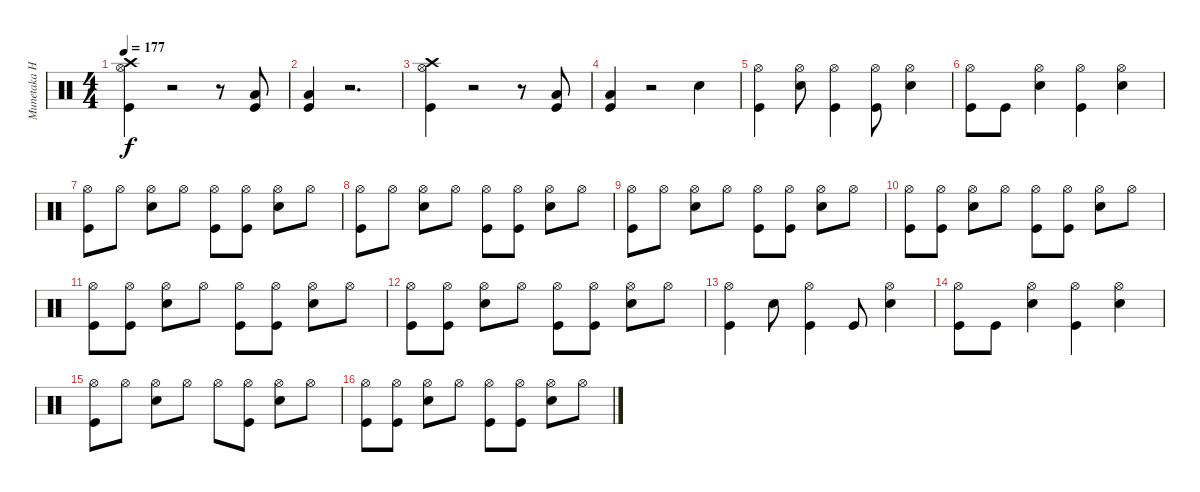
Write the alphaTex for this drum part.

\track ("Munetaka Higuchi" "Munetaka H") {instrument percussion}
\staff {score}
\articulation defaults
\ts (4 4)
\tempo 177
\clef neutral
\ks c
("Crash high (hit)" "Hi-Hat (open)" "Kick (hit)").4{dy f} r.2 r.8 ("Low Tom (hit)" "Kick (hit)").8 |
("Low Tom (hit)" "Kick (hit)").4 r.2{d} |
("Crash high (hit)" "Hi-Hat (open)" "Kick (hit)").4 r.2 r.8 ("Low Tom (hit)" "Kick (hit)").8 |
("Low Tom (hit)" "Kick (hit)").4 r.2 "Snare (hit) 2".4 |
("Hi-Hat (open)" "Kick (hit)").4 ("Hi-Hat (open)" "Snare (hit) 2").8 ("Hi-Hat (open)" "Kick (hit)").4 ("Hi-Hat (open)" "Kick (hit)").8 ("Hi-Hat (open)" "Snare (hit) 2").4 |
("Hi-Hat (open)" "Kick (hit)").8 "Kick (hit)".8 ("Hi-Hat (open)" "Snare (hit) 2").4 ("Hi-Hat (open)" "Kick (hit)").4 ("Hi-Hat (open)" "Snare (hit) 2").4 |
("Hi-Hat (open)" "Kick (hit)").8 "Hi-Hat (open)".8 ("Hi-Hat (open)" "Snare (hit) 2").8 "Hi-Hat (open)".8 ("Hi-Hat (open)" "Kick (hit)").8 ("Hi-Hat (open)" "Kick (hit)").8 ("Hi-Hat (open)" "Snare (hit) 2").8 "Hi-Hat (open)".8 |
("Hi-Hat (open)" "Kick (hit)").8 "Hi-Hat (open)".8 ("Hi-Hat (open)" "Snare (hit) 2").8 "Hi-Hat (open)".8 ("Hi-Hat (open)" "Kick (hit)").8 ("Hi-Hat (open)" "Kick (hit)").8 ("Hi-Hat (open)" "Snare (hit) 2").8 "Hi-Hat (open)".8 |
("Hi-Hat (open)" "Kick (hit)").8 "Hi-Hat (open)".8 ("Hi-Hat (open)" "Snare (hit) 2").8 "Hi-Hat (open)".8 ("Hi-Hat (open)" "Kick (hit)").8 ("Hi-Hat (open)" "Kick (hit)").8 ("Hi-Hat (open)" "Snare (hit) 2").8 "Hi-Hat (open)".8 |
("Hi-Hat (open)" "Kick (hit)").8 ("Hi-Hat (open)" "Kick (hit)").8 ("Hi-Hat (open)" "Snare (hit) 2").8 "Hi-Hat (open)".8 ("Hi-Hat (open)" "Kick (hit)").8 ("Hi-Hat (open)" "Kick (hit)").8 ("Hi-Hat (open)" "Snare (hit) 2").8 "Hi-Hat (open)".8 |
("Hi-Hat (open)" "Kick (hit)").8 ("Hi-Hat (open)" "Kick (hit)").8 ("Hi-Hat (open)" "Snare (hit) 2").8 "Hi-Hat (open)".8 ("Hi-Hat (open)" "Kick (hit)").8 ("Hi-Hat (open)" "Kick (hit)").8 ("Hi-Hat (open)" "Snare (hit) 2").8 "Hi-Hat (open)".8 |
("Hi-Hat (open)" "Kick (hit)").8 ("Hi-Hat (open)" "Kick (hit)").8 ("Hi-Hat (open)" "Snare (hit) 2").8 "Hi-Hat (open)".8 ("Hi-Hat (open)" "Kick (hit)").8 ("Hi-Hat (open)" "Kick (hit)").8 ("Hi-Hat (open)" "Snare (hit) 2").8 "Hi-Hat (open)".8 |
("Hi-Hat (open)" "Kick (hit)").4 "Snare (hit) 2".8 ("Hi-Hat (open)" "Kick (hit)").4 "Kick (hit)".8 ("Hi-Hat (open)" "Snare (hit) 2").4 |
("Hi-Hat (open)" "Kick (hit)").8 "Kick (hit)".8 ("Hi-Hat (open)" "Snare (hit) 2").4 ("Hi-Hat (open)" "Kick (hit)").4 ("Hi-Hat (open)" "Snare (hit) 2").4 |
("Hi-Hat (open)" "Kick (hit)").8 "Hi-Hat (open)".8 ("Hi-Hat (open)" "Snare (hit) 2").8 "Hi-Hat (open)".8 "Hi-Hat (open)".8 ("Hi-Hat (open)" "Kick (hit)").8 ("Hi-Hat (open)" "Snare (hit) 2").8 "Hi-Hat (open)".8 |
("Hi-Hat (open)" "Kick (hit)").8 ("Hi-Hat (open)" "Kick (hit)").8 ("Hi-Hat (open)" "Snare (hit) 2").8 "Hi-Hat (open)".8 ("Hi-Hat (open)" "Kick (hit)").8 ("Hi-Hat (open)" "Kick (hit)").8 ("Hi-Hat (open)" "Snare (hit) 2").8 "Hi-Hat (open)".8
